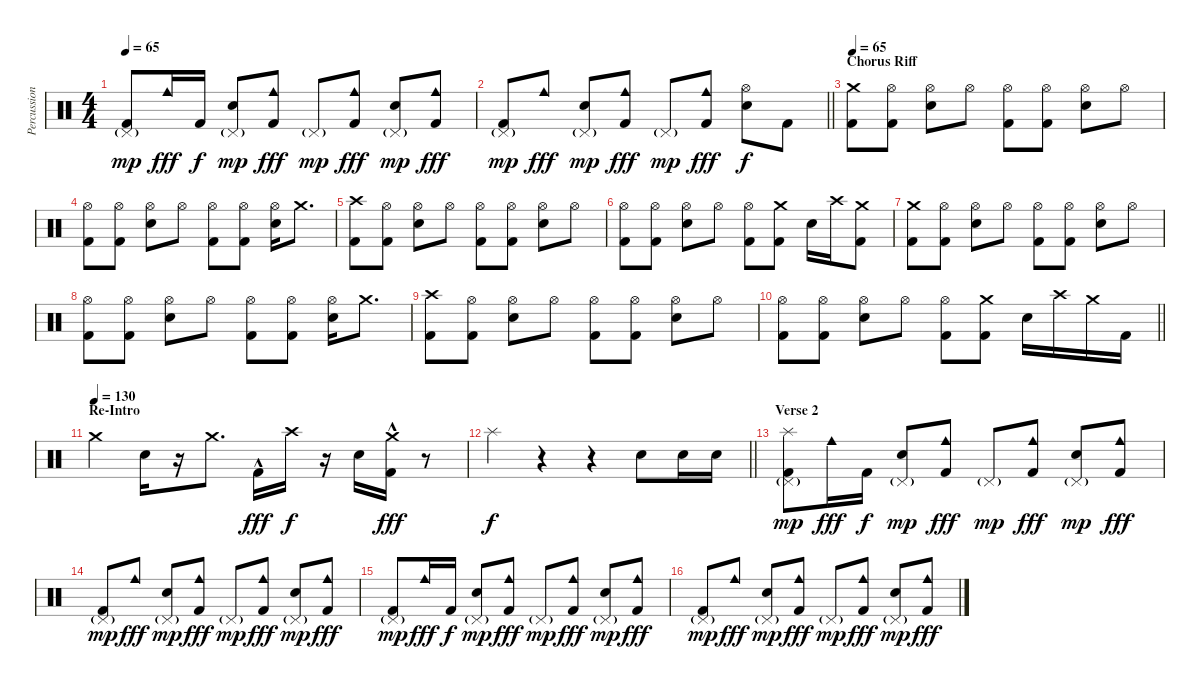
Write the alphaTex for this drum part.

\track ("Percussion" "Percussion") {instrument percussion}
\staff {score}
\articulation defaults
\ts (4 4)
\tempo 65
\clef neutral
\ks c
("Pedal Hi-Hat (hit)"{g} "Kick (hit) 2").8{dy mp} "Cowbell medium (hit)".16{dy fff} "Kick (hit) 2".16{dy f} ("Pedal Hi-Hat (hit)"{g} "Electric Snare (hit)").8{dy mp} ("Cowbell medium (hit)" "Kick (hit) 2").8{dy fff} "Pedal Hi-Hat (hit)"{g}.8{dy mp} ("Cowbell medium (hit)" "Kick (hit) 2").8{dy fff} ("Pedal Hi-Hat (hit)"{g} "Electric Snare (hit)").8{dy mp} ("Cowbell medium (hit)" "Kick (hit) 2").8{dy fff} |
\barLineRight lightlight
("Pedal Hi-Hat (hit)"{g} "Kick (hit) 2").8{dy mp} "Cowbell medium (hit)".8{dy fff} ("Pedal Hi-Hat (hit)"{g} "Electric Snare (hit)").8{dy mp} ("Cowbell medium (hit)" "Kick (hit) 2").8{dy fff} "Pedal Hi-Hat (hit)"{g}.8{dy mp} ("Cowbell medium (hit)" "Kick (hit) 2").8{dy fff} ("Hi-Hat (open)" "Electric Snare (hit)").8{dy f} "Kick (hit) 2".8 |
\section ("" "Chorus Riff")
\tempo 65
("Crash medium (hit)" "Kick (hit) 2").8 ("Hi-Hat (open)" "Kick (hit) 2").8 ("Hi-Hat (open)" "Electric Snare (hit)").8 "Hi-Hat (open)".8 ("Hi-Hat (open)" "Kick (hit) 2").8 ("Hi-Hat (open)" "Kick (hit) 2").8 ("Hi-Hat (open)" "Electric Snare (hit)").8 "Hi-Hat (open)".8 |
("Hi-Hat (open)" "Kick (hit) 2").8 ("Hi-Hat (open)" "Kick (hit) 2").8 ("Hi-Hat (open)" "Electric Snare (hit)").8 "Hi-Hat (open)".8 ("Hi-Hat (open)" "Kick (hit) 2").8 ("Hi-Hat (open)" "Kick (hit) 2").8 ("Hi-Hat (open)" "Electric Snare (hit)").16 "Crash medium (hit)".8{d} |
("Crash high (hit)" "Kick (hit) 2").8 ("Hi-Hat (open)" "Kick (hit) 2").8 ("Hi-Hat (open)" "Electric Snare (hit)").8 "Hi-Hat (open)".8 ("Hi-Hat (open)" "Kick (hit) 2").8 ("Hi-Hat (open)" "Kick (hit) 2").8 ("Hi-Hat (open)" "Electric Snare (hit)").8 "Hi-Hat (open)".8 |
("Hi-Hat (open)" "Kick (hit) 2").8 ("Hi-Hat (open)" "Kick (hit) 2").8 ("Hi-Hat (open)" "Electric Snare (hit)").8 "Hi-Hat (open)".8 ("Hi-Hat (open)" "Kick (hit) 2").8 ("Crash medium (hit)" "Kick (hit) 2").8 "Electric Snare (hit)".16 "Crash high (hit)".16 ("Crash medium (hit)" "Kick (hit) 2").8 |
("Crash medium (hit)" "Kick (hit) 2").8 ("Hi-Hat (open)" "Kick (hit) 2").8 ("Hi-Hat (open)" "Electric Snare (hit)").8 "Hi-Hat (open)".8 ("Hi-Hat (open)" "Kick (hit) 2").8 ("Hi-Hat (open)" "Kick (hit) 2").8 ("Hi-Hat (open)" "Electric Snare (hit)").8 "Hi-Hat (open)".8 |
("Hi-Hat (open)" "Kick (hit) 2").8 ("Hi-Hat (open)" "Kick (hit) 2").8 ("Hi-Hat (open)" "Electric Snare (hit)").8 "Hi-Hat (open)".8 ("Hi-Hat (open)" "Kick (hit) 2").8 ("Hi-Hat (open)" "Kick (hit) 2").8 ("Hi-Hat (open)" "Electric Snare (hit)").16 "Crash medium (hit)".8{d} |
("Crash high (hit)" "Kick (hit) 2").8 ("Hi-Hat (open)" "Kick (hit) 2").8 ("Hi-Hat (open)" "Electric Snare (hit)").8 "Hi-Hat (open)".8 ("Hi-Hat (open)" "Kick (hit) 2").8 ("Hi-Hat (open)" "Kick (hit) 2").8 ("Hi-Hat (open)" "Electric Snare (hit)").8 "Hi-Hat (open)".8 |
\barLineRight lightlight
("Hi-Hat (open)" "Kick (hit) 2").8 ("Hi-Hat (open)" "Kick (hit) 2").8 ("Hi-Hat (open)" "Electric Snare (hit)").8 "Hi-Hat (open)".8 ("Hi-Hat (open)" "Kick (hit) 2").8 ("Crash medium (hit)" "Kick (hit) 2").8 "Electric Snare (hit)".16 "Crash high (hit)".16 "Crash medium (hit)".16 "Kick (hit) 2".16 |
\section ("" "Re-Intro")
\tempo (130)
"Crash medium (hit)".4 "Electric Snare (hit)".16 r.16 "Crash medium (hit)".8{d} "Kick (hit) 2"{hac}.16{dy fff} "Crash high (hit)".16{dy f} r.16 "Electric Snare (hit)".16 ("Crash medium (hit)" "Kick (hit) 2"{hac}).16{dy fff} r.8 |
\barLineRight lightlight "Splash (hit)".4{dy f}
r.4 r.4 "Electric Snare (hit)".8 "Electric Snare (hit)".16 "Electric Snare (hit)".16 |
\section ("" "Verse 2")
("Pedal Hi-Hat (hit)"{g} "Splash (hit)" "Kick (hit) 2").8{dy mp} "Cowbell medium (hit)".16{dy fff} "Kick (hit) 2".16{dy f} ("Pedal Hi-Hat (hit)"{g} "Electric Snare (hit)").8{dy mp} ("Cowbell medium (hit)" "Kick (hit) 2").8{dy fff} "Pedal Hi-Hat (hit)"{g}.8{dy mp} ("Cowbell medium (hit)" "Kick (hit) 2").8{dy fff} ("Pedal Hi-Hat (hit)"{g} "Electric Snare (hit)").8{dy mp} ("Cowbell medium (hit)" "Kick (hit) 2").8{dy fff} |
("Pedal Hi-Hat (hit)"{g} "Kick (hit) 2").8{dy mp} "Cowbell medium (hit)".8{dy fff} ("Pedal Hi-Hat (hit)"{g} "Electric Snare (hit)").8{dy mp} ("Cowbell medium (hit)" "Kick (hit) 2").8{dy fff} "Pedal Hi-Hat (hit)"{g}.8{dy mp} ("Cowbell medium (hit)" "Kick (hit) 2").8{dy fff} ("Pedal Hi-Hat (hit)"{g} "Electric Snare (hit)").8{dy mp} ("Cowbell medium (hit)" "Kick (hit) 2").8{dy fff} |
("Pedal Hi-Hat (hit)"{g} "Kick (hit) 2").8{dy mp} "Cowbell medium (hit)".16{dy fff} "Kick (hit) 2".16{dy f} ("Pedal Hi-Hat (hit)"{g} "Electric Snare (hit)").8{dy mp} ("Cowbell medium (hit)" "Kick (hit) 2").8{dy fff} "Pedal Hi-Hat (hit)"{g}.8{dy mp} ("Cowbell medium (hit)" "Kick (hit) 2").8{dy fff} ("Pedal Hi-Hat (hit)"{g} "Electric Snare (hit)").8{dy mp} ("Cowbell medium (hit)" "Kick (hit) 2").8{dy fff} |
("Pedal Hi-Hat (hit)"{g} "Kick (hit) 2").8{dy mp} "Cowbell medium (hit)".8{dy fff} ("Pedal Hi-Hat (hit)"{g} "Electric Snare (hit)").8{dy mp} ("Cowbell medium (hit)" "Kick (hit) 2").8{dy fff} "Pedal Hi-Hat (hit)"{g}.8{dy mp} ("Cowbell medium (hit)" "Kick (hit) 2").8{dy fff} ("Pedal Hi-Hat (hit)"{g} "Electric Snare (hit)").8{dy mp} ("Cowbell medium (hit)" "Kick (hit) 2").8{dy fff}
